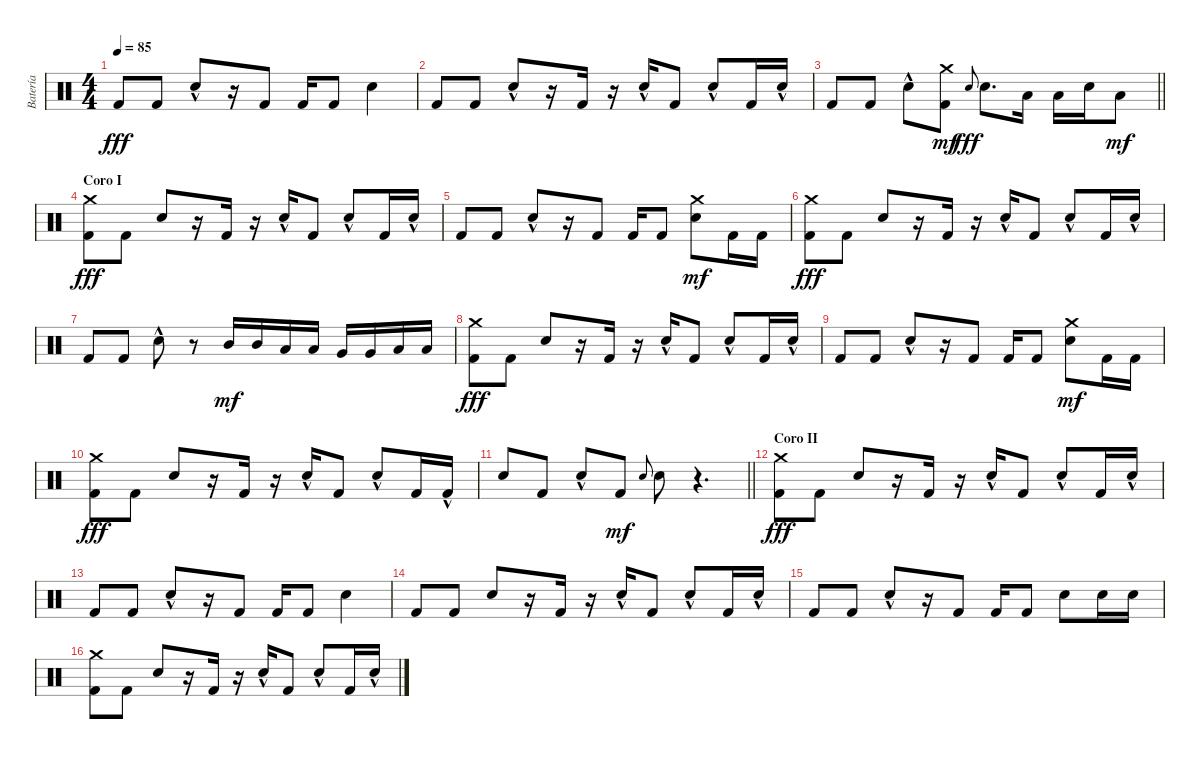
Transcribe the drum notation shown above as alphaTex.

\track ("Batería" "Batería") {instrument percussion}
\staff {score}
\articulation defaults
\ts (4 4)
\tempo 85
\clef neutral
\ks c "Kick (hit) 2".8{dy fff} "Kick (hit) 2".8 "Electric Snare (hit)"{hac}.8
r.16 "Kick (hit) 2".8 "Kick (hit) 2".16 "Kick (hit) 2".8 "Electric Snare (hit)".4 |
"Kick (hit) 2".8 "Kick (hit) 2".8 "Electric Snare (hit)"{hac}.8 r.16 "Kick (hit) 2".16 r.16 "Electric Snare (hit)"{hac}.16 "Kick (hit) 2".8 "Electric Snare (hit)"{hac}.8 "Kick (hit) 2".16 "Electric Snare (hit)"{hac}.16 |
\barLineRight lightlight "Kick (hit) 2".8 "Kick (hit) 2".8 "Electric Snare (hit)"{hac}.8
("Kick (hit) 2" "Crash medium (hit)").8{dy mf} "Electric Snare (hit)".8{gr onbeat dy fff} "Electric Snare (hit)".8{d} "Low Tom (hit)".16 "Low Tom (hit)".16 "Electric Snare (hit)".16 "Low Tom (hit)".8{dy mf} |
\section ("" "Coro I")
("Kick (hit) 2" "Crash medium (hit)").8{dy fff} "Kick (hit) 2".8 "Electric Snare (hit)".8 r.16 "Kick (hit) 2".16 r.16 "Electric Snare (hit)"{hac}.16 "Kick (hit) 2".8 "Electric Snare (hit)"{hac}.8 "Kick (hit) 2".16 "Electric Snare (hit)"{hac}.16 |
"Kick (hit) 2".8 "Kick (hit) 2".8 "Electric Snare (hit)"{hac}.8 r.16 "Kick (hit) 2".8 "Kick (hit) 2".16 "Kick (hit) 2".8 ("Electric Snare (hit)" "Crash medium (hit)").8{dy mf} "Kick (hit) 2".16 "Kick (hit) 2".16 |
("Kick (hit) 2" "Crash medium (hit)").8{dy fff} "Kick (hit) 2".8 "Electric Snare (hit)".8 r.16 "Kick (hit) 2".16 r.16 "Electric Snare (hit)"{hac}.16 "Kick (hit) 2".8 "Electric Snare (hit)"{hac}.8 "Kick (hit) 2".16 "Electric Snare (hit)"{hac}.16 |
"Kick (hit) 2".8 "Kick (hit) 2".8 "Electric Snare (hit)"{hac}.8 r.8 "Mid Tom (hit)".16{dy mf} "Mid Tom (hit)".16 "Low Tom (hit)".16 "Low Tom (hit)".16 "Very Low Tom (hit)".16 "Very Low Tom (hit)".16 "Low Floor Tom (hit)".16 "Low Floor Tom (hit)".16 |
("Kick (hit) 2" "Crash medium (hit)").8{dy fff} "Kick (hit) 2".8 "Electric Snare (hit)".8 r.16 "Kick (hit) 2".16 r.16 "Electric Snare (hit)"{hac}.16 "Kick (hit) 2".8 "Electric Snare (hit)"{hac}.8 "Kick (hit) 2".16 "Electric Snare (hit)"{hac}.16 |
"Kick (hit) 2".8 "Kick (hit) 2".8 "Electric Snare (hit)"{hac}.8 r.16 "Kick (hit) 2".8 "Kick (hit) 2".16 "Kick (hit) 2".8 ("Electric Snare (hit)" "Crash medium (hit)").8{dy mf} "Kick (hit) 2".16 "Kick (hit) 2".16 |
("Kick (hit) 2" "Crash medium (hit)").8{dy fff} "Kick (hit) 2".8 "Electric Snare (hit)".8 r.16 "Kick (hit) 2".16 r.16 "Electric Snare (hit)"{hac}.16 "Kick (hit) 2".8 "Electric Snare (hit)"{hac}.8 "Kick (hit) 2".16 "Kick (hit) 2"{hac}.16 |
\barLineRight lightlight "Electric Snare (hit)".8 "Kick (hit) 2".8 "Electric Snare (hit)"{hac}.8 "Kick (hit) 2".8{dy mf} "Electric Snare (hit)".8{gr onbeat} "Electric Snare (hit)".8
r.4{d} |
\section ("" "Coro II")
("Kick (hit) 2" "Crash medium (hit)").8{dy fff} "Kick (hit) 2".8 "Electric Snare (hit)".8 r.16 "Kick (hit) 2".16 r.16 "Electric Snare (hit)"{hac}.16 "Kick (hit) 2".8 "Electric Snare (hit)"{hac}.8 "Kick (hit) 2".16 "Electric Snare (hit)"{hac}.16 |
"Kick (hit) 2".8 "Kick (hit) 2".8 "Electric Snare (hit)"{hac}.8 r.16 "Kick (hit) 2".8 "Kick (hit) 2".16 "Kick (hit) 2".8 "Electric Snare (hit)".4 |
"Kick (hit) 2".8 "Kick (hit) 2".8 "Electric Snare (hit)".8 r.16 "Kick (hit) 2".16 r.16 "Electric Snare (hit)"{hac}.16 "Kick (hit) 2".8 "Electric Snare (hit)"{hac}.8 "Kick (hit) 2".16 "Electric Snare (hit)"{hac}.16 |
"Kick (hit) 2".8 "Kick (hit) 2".8 "Electric Snare (hit)"{hac}.8 r.16 "Kick (hit) 2".8 "Kick (hit) 2".16 "Kick (hit) 2".8 "Electric Snare (hit)".8 "Electric Snare (hit)".16 "Electric Snare (hit)".16 |
("Kick (hit) 2" "Crash medium (hit)").8 "Kick (hit) 2".8 "Electric Snare (hit)".8 r.16 "Kick (hit) 2".16 r.16 "Electric Snare (hit)"{hac}.16 "Kick (hit) 2".8 "Electric Snare (hit)"{hac}.8 "Kick (hit) 2".16 "Electric Snare (hit)"{hac}.16
